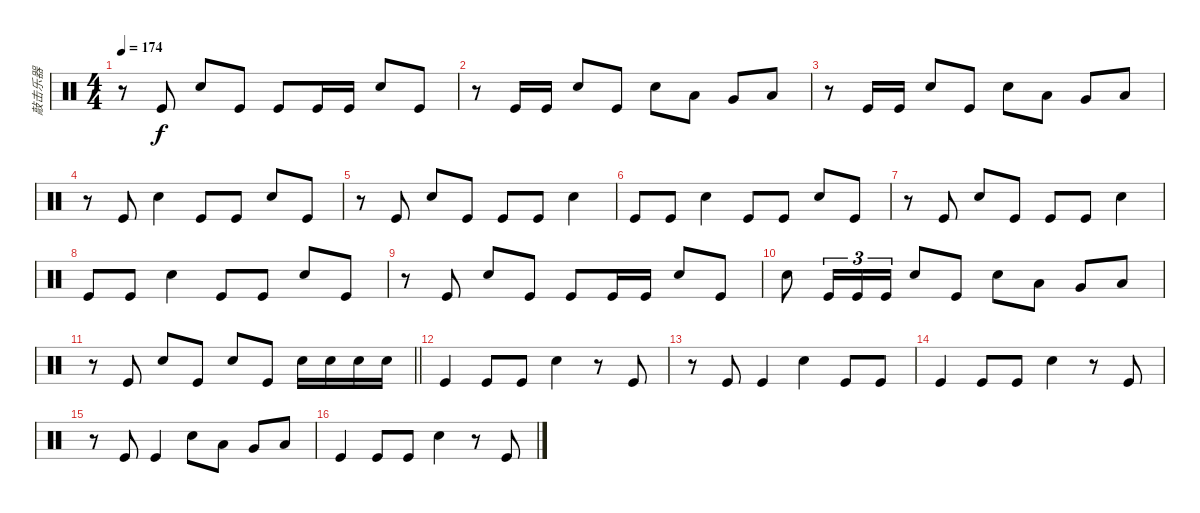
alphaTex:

\track ("敲击乐器" "敲击乐器") {instrument percussion}
\staff {score}
\articulation defaults
\ts (4 4)
\tempo 174
\clef neutral
\ks c
r.8{dy f} "Kick (hit)".8 "Snare (hit) 2".8 "Kick (hit)".8 "Kick (hit)".8 "Kick (hit)".16 "Kick (hit)".16 "Snare (hit) 2".8 "Kick (hit)".8 |
r.8 "Kick (hit)".16 "Kick (hit)".16 "Snare (hit) 2".8 "Kick (hit)".8 "Snare (hit) 2".8 "Low Tom (hit)".8 "Very Low Tom (hit)".8 "Low Floor Tom (hit)".8 |
r.8 "Kick (hit)".16 "Kick (hit)".16 "Snare (hit) 2".8 "Kick (hit)".8 "Snare (hit) 2".8 "Low Tom (hit)".8 "Very Low Tom (hit)".8 "Low Floor Tom (hit)".8 |
r.8 "Kick (hit)".8 "Snare (hit) 2".4 "Kick (hit)".8 "Kick (hit)".8 "Snare (hit) 2".8 "Kick (hit)".8 |
r.8 "Kick (hit)".8 "Snare (hit) 2".8 "Kick (hit)".8 "Kick (hit)".8 "Kick (hit)".8 "Snare (hit) 2".4 |
"Kick (hit)".8 "Kick (hit)".8 "Snare (hit) 2".4 "Kick (hit)".8 "Kick (hit)".8 "Snare (hit) 2".8 "Kick (hit)".8 |
r.8 "Kick (hit)".8 "Snare (hit) 2".8 "Kick (hit)".8 "Kick (hit)".8 "Kick (hit)".8 "Snare (hit) 2".4 |
"Kick (hit)".8 "Kick (hit)".8 "Snare (hit) 2".4 "Kick (hit)".8 "Kick (hit)".8 "Snare (hit) 2".8 "Kick (hit)".8 |
r.8 "Kick (hit)".8 "Snare (hit) 2".8 "Kick (hit)".8 "Kick (hit)".8 "Kick (hit)".16 "Kick (hit)".16 "Snare (hit) 2".8 "Kick (hit)".8 |
"Snare (hit) 2".8 "Kick (hit)".16{tu (3 2)} "Kick (hit)".16{tu (3 2)} "Kick (hit)".16{tu (3 2)} "Snare (hit) 2".8 "Kick (hit)".8 "Snare (hit) 2".8 "Low Tom (hit)".8 "Very Low Tom (hit)".8 "Low Floor Tom (hit)".8 |
\barLineRight lightlight
r.8 "Kick (hit)".8 "Snare (hit) 2".8 "Kick (hit)".8 "Snare (hit) 2".8 "Kick (hit)".8 "Snare (hit) 2".16 "Snare (hit) 2".16 "Snare (hit) 2".16 "Snare (hit) 2".16 |
"Kick (hit)".4 "Kick (hit)".8 "Kick (hit)".8 "Snare (hit) 2".4 r.8 "Kick (hit)".8 |
r.8 "Kick (hit)".8 "Kick (hit)".4 "Snare (hit) 2".4 "Kick (hit)".8 "Kick (hit)".8 |
"Kick (hit)".4 "Kick (hit)".8 "Kick (hit)".8 "Snare (hit) 2".4 r.8 "Kick (hit)".8 |
r.8 "Kick (hit)".8 "Kick (hit)".4 "Snare (hit) 2".8 "Low Tom (hit)".8 "Very Low Tom (hit)".8 "Low Floor Tom (hit)".8 |
"Kick (hit)".4 "Kick (hit)".8 "Kick (hit)".8 "Snare (hit) 2".4 r.8 "Kick (hit)".8
